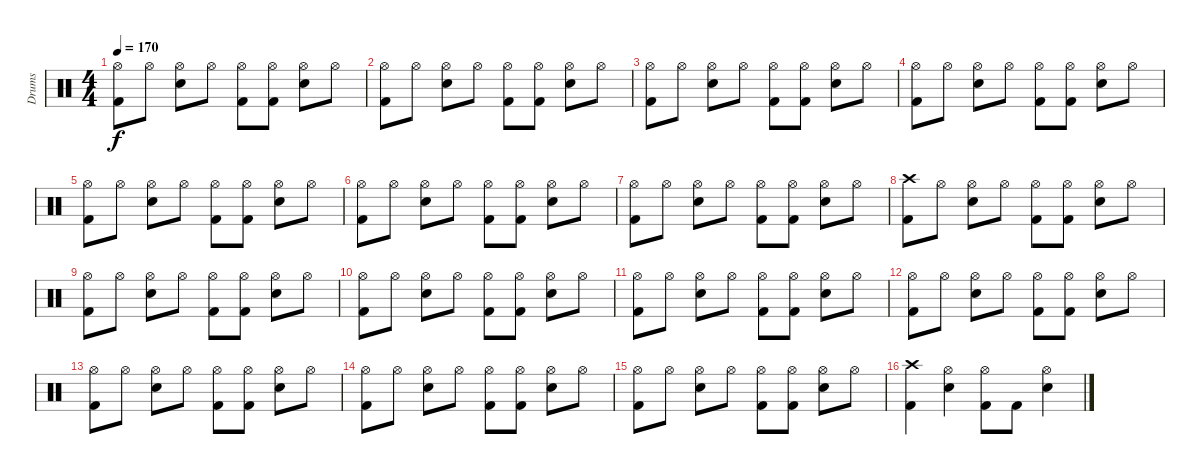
\track ("Drums" "Drums") {instrument percussion}
\staff {score}
\articulation defaults
\ts (4 4)
\tempo 170
\clef neutral
\ks c
("Hi-Hat (open)" "Kick (hit) 2").8{dy f} "Hi-Hat (open)".8 ("Hi-Hat (open)" "Snare (hit) 2").8 "Hi-Hat (open)".8 ("Hi-Hat (open)" "Kick (hit) 2").8 ("Hi-Hat (open)" "Kick (hit) 2").8 ("Hi-Hat (open)" "Snare (hit) 2").8 "Hi-Hat (open)".8 |
("Hi-Hat (open)" "Kick (hit) 2").8 "Hi-Hat (open)".8 ("Hi-Hat (open)" "Snare (hit) 2").8 "Hi-Hat (open)".8 ("Hi-Hat (open)" "Kick (hit) 2").8 ("Hi-Hat (open)" "Kick (hit) 2").8 ("Hi-Hat (open)" "Snare (hit) 2").8 "Hi-Hat (open)".8 |
("Hi-Hat (open)" "Kick (hit) 2").8 "Hi-Hat (open)".8 ("Hi-Hat (open)" "Snare (hit) 2").8 "Hi-Hat (open)".8 ("Hi-Hat (open)" "Kick (hit) 2").8 ("Hi-Hat (open)" "Kick (hit) 2").8 ("Hi-Hat (open)" "Snare (hit) 2").8 "Hi-Hat (open)".8 |
("Hi-Hat (open)" "Kick (hit) 2").8 "Hi-Hat (open)".8 ("Hi-Hat (open)" "Snare (hit) 2").8 "Hi-Hat (open)".8 ("Hi-Hat (open)" "Kick (hit) 2").8 ("Hi-Hat (open)" "Kick (hit) 2").8 ("Hi-Hat (open)" "Snare (hit) 2").8 "Hi-Hat (open)".8 |
("Hi-Hat (open)" "Kick (hit) 2").8 "Hi-Hat (open)".8 ("Hi-Hat (open)" "Snare (hit) 2").8 "Hi-Hat (open)".8 ("Hi-Hat (open)" "Kick (hit) 2").8 ("Hi-Hat (open)" "Kick (hit) 2").8 ("Hi-Hat (open)" "Snare (hit) 2").8 "Hi-Hat (open)".8 |
("Hi-Hat (open)" "Kick (hit) 2").8 "Hi-Hat (open)".8 ("Hi-Hat (open)" "Snare (hit) 2").8 "Hi-Hat (open)".8 ("Hi-Hat (open)" "Kick (hit) 2").8 ("Hi-Hat (open)" "Kick (hit) 2").8 ("Hi-Hat (open)" "Snare (hit) 2").8 "Hi-Hat (open)".8 |
("Hi-Hat (open)" "Kick (hit) 2").8 "Hi-Hat (open)".8 ("Hi-Hat (open)" "Snare (hit) 2").8 "Hi-Hat (open)".8 ("Hi-Hat (open)" "Kick (hit) 2").8 ("Hi-Hat (open)" "Kick (hit) 2").8 ("Hi-Hat (open)" "Snare (hit) 2").8 "Hi-Hat (open)".8 |
("Crash high (hit)" "Kick (hit) 2").8 "Hi-Hat (open)".8 ("Hi-Hat (open)" "Snare (hit) 2").8 "Hi-Hat (open)".8 ("Hi-Hat (open)" "Kick (hit) 2").8 ("Hi-Hat (open)" "Kick (hit) 2").8 ("Hi-Hat (open)" "Snare (hit) 2").8 "Hi-Hat (open)".8 |
("Hi-Hat (open)" "Kick (hit) 2").8 "Hi-Hat (open)".8 ("Hi-Hat (open)" "Snare (hit) 2").8 "Hi-Hat (open)".8 ("Hi-Hat (open)" "Kick (hit) 2").8 ("Hi-Hat (open)" "Kick (hit) 2").8 ("Hi-Hat (open)" "Snare (hit) 2").8 "Hi-Hat (open)".8 |
("Hi-Hat (open)" "Kick (hit) 2").8 "Hi-Hat (open)".8 ("Hi-Hat (open)" "Snare (hit) 2").8 "Hi-Hat (open)".8 ("Hi-Hat (open)" "Kick (hit) 2").8 ("Hi-Hat (open)" "Kick (hit) 2").8 ("Hi-Hat (open)" "Snare (hit) 2").8 "Hi-Hat (open)".8 |
("Hi-Hat (open)" "Kick (hit) 2").8 "Hi-Hat (open)".8 ("Hi-Hat (open)" "Snare (hit) 2").8 "Hi-Hat (open)".8 ("Hi-Hat (open)" "Kick (hit) 2").8 ("Hi-Hat (open)" "Kick (hit) 2").8 ("Hi-Hat (open)" "Snare (hit) 2").8 "Hi-Hat (open)".8 |
("Hi-Hat (open)" "Kick (hit) 2").8 "Hi-Hat (open)".8 ("Hi-Hat (open)" "Snare (hit) 2").8 "Hi-Hat (open)".8 ("Hi-Hat (open)" "Kick (hit) 2").8 ("Hi-Hat (open)" "Kick (hit) 2").8 ("Hi-Hat (open)" "Snare (hit) 2").8 "Hi-Hat (open)".8 |
("Hi-Hat (open)" "Kick (hit) 2").8 "Hi-Hat (open)".8 ("Hi-Hat (open)" "Snare (hit) 2").8 "Hi-Hat (open)".8 ("Hi-Hat (open)" "Kick (hit) 2").8 ("Hi-Hat (open)" "Kick (hit) 2").8 ("Hi-Hat (open)" "Snare (hit) 2").8 "Hi-Hat (open)".8 |
("Hi-Hat (open)" "Kick (hit) 2").8 "Hi-Hat (open)".8 ("Hi-Hat (open)" "Snare (hit) 2").8 "Hi-Hat (open)".8 ("Hi-Hat (open)" "Kick (hit) 2").8 ("Hi-Hat (open)" "Kick (hit) 2").8 ("Hi-Hat (open)" "Snare (hit) 2").8 "Hi-Hat (open)".8 |
("Hi-Hat (open)" "Kick (hit) 2").8 "Hi-Hat (open)".8 ("Hi-Hat (open)" "Snare (hit) 2").8 "Hi-Hat (open)".8 ("Hi-Hat (open)" "Kick (hit) 2").8 ("Hi-Hat (open)" "Kick (hit) 2").8 ("Hi-Hat (open)" "Snare (hit) 2").8 "Hi-Hat (open)".8 |
("Crash high (hit)" "Kick (hit) 2").4 ("Hi-Hat (open)" "Snare (hit) 2").4 ("Hi-Hat (open)" "Kick (hit) 2").8 "Kick (hit) 2".8 ("Hi-Hat (open)" "Snare (hit) 2").4
